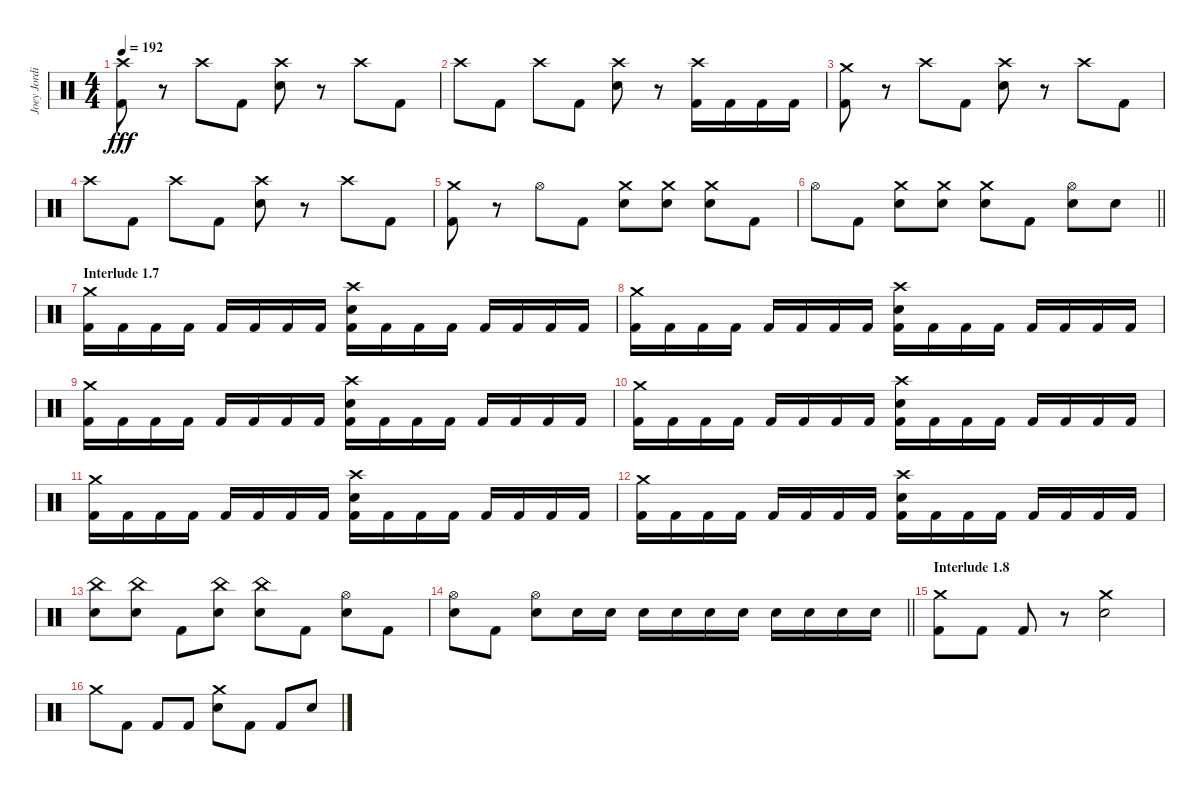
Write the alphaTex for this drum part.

\track ("Joey Jordison" "Joey Jordi") {instrument percussion}
\staff {score}
\articulation defaults
\ts (4 4)
\tempo 192
\clef neutral
\ks c
("Crash high (hit)" "Kick (hit) 2").8{dy fff} r.8 "Crash high (hit)".8 "Kick (hit) 2".8 ("Crash high (hit)" "Electric Snare (hit)").8 r.8 "Crash high (hit)".8 "Kick (hit) 2".8 |
"Crash high (hit)".8 "Kick (hit) 2".8 "Crash high (hit)".8 "Kick (hit) 2".8 ("Crash high (hit)" "Electric Snare (hit)").8 r.8 ("Crash high (hit)" "Kick (hit) 2").16 "Kick (hit) 2".16 "Kick (hit) 2".16 "Kick (hit) 2".16 |
("Crash medium (hit)" "Kick (hit) 2").8 r.8 "Crash high (hit)".8 "Kick (hit) 2".8 ("Crash high (hit)" "Electric Snare (hit)").8 r.8 "Crash high (hit)".8 "Kick (hit) 2".8 |
"Crash high (hit)".8 "Kick (hit) 2".8 "Crash high (hit)".8 "Kick (hit) 2".8 ("Crash high (hit)" "Electric Snare (hit)").8 r.8 "Crash high (hit)".8 "Kick (hit) 2".8 |
("Crash medium (hit)" "Kick (hit) 2").8 r.8 "Hi-Hat (open)".8 "Kick (hit) 2".8 ("Crash medium (hit)" "Electric Snare (hit)").8 ("Crash medium (hit)" "Electric Snare (hit)").8 ("Crash medium (hit)" "Electric Snare (hit)").8 "Kick (hit) 2".8 |
\barLineRight lightlight "Hi-Hat (open)".8 "Kick (hit) 2".8
("Crash medium (hit)" "Electric Snare (hit)").8 ("Crash medium (hit)" "Electric Snare (hit)").8 ("Crash medium (hit)" "Electric Snare (hit)").8 "Kick (hit) 2".8 ("Hi-Hat (open)" "Electric Snare (hit)").8 "Electric Snare (hit)".8 |
\section ("" "Interlude 1.7")
("Crash medium (hit)" "Kick (hit) 2").16 "Kick (hit) 2".16 "Kick (hit) 2".16 "Kick (hit) 2".16 "Kick (hit) 2".16 "Kick (hit) 2".16 "Kick (hit) 2".16 "Kick (hit) 2".16 ("Crash high (hit)" "Electric Snare (hit)" "Kick (hit) 2").16 "Kick (hit) 2".16 "Kick (hit) 2".16 "Kick (hit) 2".16 "Kick (hit) 2".16 "Kick (hit) 2".16 "Kick (hit) 2".16 "Kick (hit) 2".16 |
("Crash medium (hit)" "Kick (hit) 2").16 "Kick (hit) 2".16 "Kick (hit) 2".16 "Kick (hit) 2".16 "Kick (hit) 2".16 "Kick (hit) 2".16 "Kick (hit) 2".16 "Kick (hit) 2".16 ("Crash high (hit)" "Electric Snare (hit)" "Kick (hit) 2").16 "Kick (hit) 2".16 "Kick (hit) 2".16 "Kick (hit) 2".16 "Kick (hit) 2".16 "Kick (hit) 2".16 "Kick (hit) 2".16 "Kick (hit) 2".16 |
("Crash medium (hit)" "Kick (hit) 2").16 "Kick (hit) 2".16 "Kick (hit) 2".16 "Kick (hit) 2".16 "Kick (hit) 2".16 "Kick (hit) 2".16 "Kick (hit) 2".16 "Kick (hit) 2".16 ("Crash high (hit)" "Electric Snare (hit)" "Kick (hit) 2").16 "Kick (hit) 2".16 "Kick (hit) 2".16 "Kick (hit) 2".16 "Kick (hit) 2".16 "Kick (hit) 2".16 "Kick (hit) 2".16 "Kick (hit) 2".16 |
("Crash medium (hit)" "Kick (hit) 2").16 "Kick (hit) 2".16 "Kick (hit) 2".16 "Kick (hit) 2".16 "Kick (hit) 2".16 "Kick (hit) 2".16 "Kick (hit) 2".16 "Kick (hit) 2".16 ("Crash high (hit)" "Electric Snare (hit)" "Kick (hit) 2").16 "Kick (hit) 2".16 "Kick (hit) 2".16 "Kick (hit) 2".16 "Kick (hit) 2".16 "Kick (hit) 2".16 "Kick (hit) 2".16 "Kick (hit) 2".16 |
("Crash medium (hit)" "Kick (hit) 2").16 "Kick (hit) 2".16 "Kick (hit) 2".16 "Kick (hit) 2".16 "Kick (hit) 2".16 "Kick (hit) 2".16 "Kick (hit) 2".16 "Kick (hit) 2".16 ("Crash high (hit)" "Electric Snare (hit)" "Kick (hit) 2").16 "Kick (hit) 2".16 "Kick (hit) 2".16 "Kick (hit) 2".16 "Kick (hit) 2".16 "Kick (hit) 2".16 "Kick (hit) 2".16 "Kick (hit) 2".16 |
("Crash medium (hit)" "Kick (hit) 2").16 "Kick (hit) 2".16 "Kick (hit) 2".16 "Kick (hit) 2".16 "Kick (hit) 2".16 "Kick (hit) 2".16 "Kick (hit) 2".16 "Kick (hit) 2".16 ("Crash high (hit)" "Electric Snare (hit)" "Kick (hit) 2").16 "Kick (hit) 2".16 "Kick (hit) 2".16 "Kick (hit) 2".16 "Kick (hit) 2".16 "Kick (hit) 2".16 "Kick (hit) 2".16 "Kick (hit) 2".16 |
("China (hit)" "Electric Snare (hit)").8 ("China (hit)" "Electric Snare (hit)").8 "Kick (hit) 2".8 ("China (hit)" "Electric Snare (hit)").8 ("China (hit)" "Electric Snare (hit)").8 "Kick (hit) 2".8 ("Hi-Hat (open)" "Electric Snare (hit)").8 "Kick (hit) 2".8 |
\barLineRight lightlight
("Hi-Hat (open)" "Electric Snare (hit)").8 "Kick (hit) 2".8 ("Hi-Hat (open)" "Electric Snare (hit)").8 "Electric Snare (hit)".16 "Electric Snare (hit)".16 "Electric Snare (hit)".16 "Electric Snare (hit)".16 "Electric Snare (hit)".16 "Electric Snare (hit)".16 "Electric Snare (hit)".16 "Electric Snare (hit)".16 "Electric Snare (hit)".16 "Electric Snare (hit)".16 |
\section ("" "Interlude 1.8")
("Crash medium (hit)" "Kick (hit) 2").8 "Kick (hit) 2".8 "Kick (hit) 2".8 r.8 ("Crash medium (hit)" "Electric Snare (hit)").2 |
"Crash medium (hit)".8 "Kick (hit) 2".8 "Kick (hit) 2".8 "Kick (hit) 2".8 ("Crash medium (hit)" "Electric Snare (hit)").8 "Kick (hit) 2".8 "Kick (hit) 2".8 "Electric Snare (hit)".8
